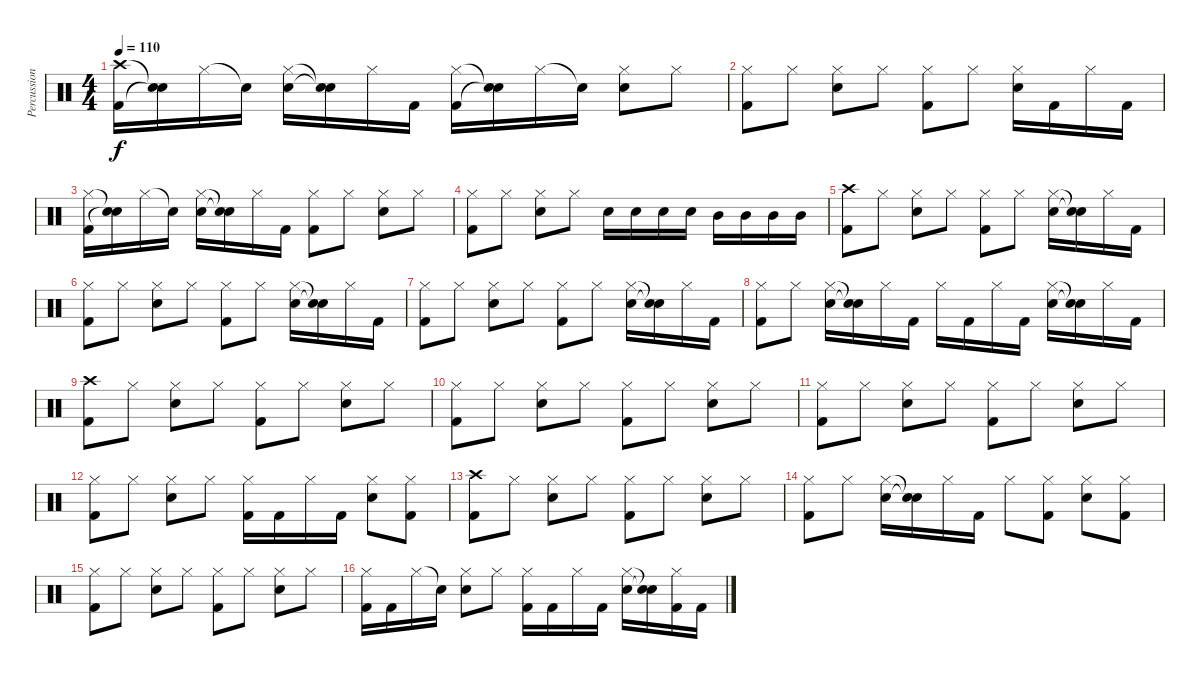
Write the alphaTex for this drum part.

\track ("Percussion" "Percussion") {instrument percussion}
\staff {score}
\articulation defaults
\ts (4 4)
\tempo 110
\clef neutral
\ks c
("Crash high (hit)" "Kick (hit) 2").16{dy f} ("Snare (hit)"{t} "Snare (hit)"{t}).16 "Hi-Hat (closed)".16 "Snare (hit)"{t}.16 ("Hi-Hat (closed)" "Snare (hit) 2").16 ("Snare (hit)"{t} "Snare (hit)"{t}).16 "Hi-Hat (closed)".16 "Kick (hit) 2".16 ("Hi-Hat (closed)" "Kick (hit) 2").16 ("Snare (hit)"{t} "Snare (hit)"{t}).16 "Hi-Hat (closed)".16 "Snare (hit)"{t}.16 ("Hi-Hat (closed)" "Snare (hit) 2").8 "Hi-Hat (closed)".8 |
("Hi-Hat (closed)" "Kick (hit) 2").8 "Hi-Hat (closed)".8 ("Hi-Hat (closed)" "Snare (hit) 2").8 "Hi-Hat (closed)".8 ("Hi-Hat (closed)" "Kick (hit) 2").8 "Hi-Hat (closed)".8 ("Hi-Hat (closed)" "Snare (hit) 2").16 "Kick (hit) 2".16 "Hi-Hat (closed)".16 "Kick (hit) 2".16 |
("Hi-Hat (closed)" "Kick (hit) 2").16 ("Snare (hit)"{t} "Snare (hit)"{t}).16 "Hi-Hat (closed)".16 "Snare (hit)"{t}.16 ("Hi-Hat (closed)" "Snare (hit) 2").16 ("Snare (hit)"{t} "Snare (hit)"{t}).16 "Hi-Hat (closed)".16 "Kick (hit) 2".16 ("Hi-Hat (closed)" "Kick (hit) 2").8 "Hi-Hat (closed)".8 ("Hi-Hat (closed)" "Snare (hit) 2").8 "Hi-Hat (closed)".8 |
("Hi-Hat (closed)" "Kick (hit) 2").8 "Hi-Hat (closed)".8 ("Hi-Hat (closed)" "Snare (hit) 2").8 "Hi-Hat (closed)".8 "Snare (hit) 2".16 "Snare (hit) 2".16 "Snare (hit) 2".16 "Snare (hit) 2".16 "Mid Tom (hit)".16 "Mid Tom (hit)".16 "Mid Tom (hit)".16 "Mid Tom (hit)".16 |
("Crash high (hit)" "Kick (hit) 2").8 "Hi-Hat (closed)".8 ("Hi-Hat (closed)" "Snare (hit) 2").8 "Hi-Hat (closed)".8 ("Hi-Hat (closed)" "Kick (hit) 2").8 "Hi-Hat (closed)".8 ("Hi-Hat (closed)" "Snare (hit) 2").16 ("Snare (hit)"{t} "Snare (hit)"{t}).16 "Hi-Hat (closed)".16 "Kick (hit) 2".16 |
("Hi-Hat (closed)" "Kick (hit) 2").8 "Hi-Hat (closed)".8 ("Hi-Hat (closed)" "Snare (hit) 2").8 "Hi-Hat (closed)".8 ("Hi-Hat (closed)" "Kick (hit) 2").8 "Hi-Hat (closed)".8 ("Hi-Hat (closed)" "Snare (hit) 2").16 ("Snare (hit)"{t} "Snare (hit)"{t}).16 "Hi-Hat (closed)".16 "Kick (hit) 2".16 |
("Hi-Hat (closed)" "Kick (hit) 2").8 "Hi-Hat (closed)".8 ("Hi-Hat (closed)" "Snare (hit) 2").8 "Hi-Hat (closed)".8 ("Hi-Hat (closed)" "Kick (hit) 2").8 "Hi-Hat (closed)".8 ("Hi-Hat (closed)" "Snare (hit) 2").16 ("Snare (hit)"{t} "Snare (hit)"{t}).16 "Hi-Hat (closed)".16 "Kick (hit) 2".16 |
("Hi-Hat (closed)" "Kick (hit) 2").8 "Hi-Hat (closed)".8 ("Hi-Hat (closed)" "Snare (hit) 2").16 ("Snare (hit)"{t} "Snare (hit)"{t}).16 "Hi-Hat (closed)".16 "Kick (hit) 2".16 "Hi-Hat (closed)".16 "Kick (hit) 2".16 "Hi-Hat (closed)".16 "Kick (hit) 2".16 ("Hi-Hat (closed)" "Snare (hit) 2").16 ("Snare (hit)"{t} "Snare (hit)"{t}).16 "Hi-Hat (closed)".16 "Kick (hit) 2".16 |
("Crash high (hit)" "Kick (hit) 2").8 "Hi-Hat (closed)".8 ("Hi-Hat (closed)" "Snare (hit) 2").8 "Hi-Hat (closed)".8 ("Hi-Hat (closed)" "Kick (hit) 2").8 "Hi-Hat (closed)".8 ("Hi-Hat (closed)" "Snare (hit) 2").8 "Hi-Hat (closed)".8 |
("Hi-Hat (closed)" "Kick (hit) 2").8 "Hi-Hat (closed)".8 ("Hi-Hat (closed)" "Snare (hit) 2").8 "Hi-Hat (closed)".8 ("Hi-Hat (closed)" "Kick (hit) 2").8 "Hi-Hat (closed)".8 ("Hi-Hat (closed)" "Snare (hit) 2").8 "Hi-Hat (closed)".8 |
("Hi-Hat (closed)" "Kick (hit) 2").8 "Hi-Hat (closed)".8 ("Hi-Hat (closed)" "Snare (hit) 2").8 "Hi-Hat (closed)".8 ("Hi-Hat (closed)" "Kick (hit) 2").8 "Hi-Hat (closed)".8 ("Hi-Hat (closed)" "Snare (hit) 2").8 "Hi-Hat (closed)".8 |
("Hi-Hat (closed)" "Kick (hit) 2").8 "Hi-Hat (closed)".8 ("Hi-Hat (closed)" "Snare (hit) 2").8 "Hi-Hat (closed)".8 ("Hi-Hat (closed)" "Kick (hit) 2").16 "Kick (hit) 2".16 "Hi-Hat (closed)".16 "Kick (hit) 2".16 ("Hi-Hat (closed)" "Snare (hit) 2").8 ("Hi-Hat (closed)" "Kick (hit) 2").8 |
("Crash high (hit)" "Kick (hit) 2").8 "Hi-Hat (closed)".8 ("Hi-Hat (closed)" "Snare (hit) 2").8 "Hi-Hat (closed)".8 ("Hi-Hat (closed)" "Kick (hit) 2").8 "Hi-Hat (closed)".8 ("Hi-Hat (closed)" "Snare (hit) 2").8 "Hi-Hat (closed)".8 |
("Hi-Hat (closed)" "Kick (hit) 2").8 "Hi-Hat (closed)".8 ("Hi-Hat (closed)" "Snare (hit) 2").16 ("Snare (hit)"{t} "Snare (hit)"{t}).16 "Hi-Hat (closed)".16 "Kick (hit) 2".16 "Hi-Hat (closed)".8 ("Hi-Hat (closed)" "Kick (hit) 2").8 ("Hi-Hat (closed)" "Snare (hit) 2").8 ("Hi-Hat (closed)" "Kick (hit) 2").8 |
("Hi-Hat (closed)" "Kick (hit) 2").8 "Hi-Hat (closed)".8 ("Hi-Hat (closed)" "Snare (hit) 2").8 "Hi-Hat (closed)".8 ("Hi-Hat (closed)" "Kick (hit) 2").8 "Hi-Hat (closed)".8 ("Hi-Hat (closed)" "Snare (hit) 2").8 "Hi-Hat (closed)".8 |
("Hi-Hat (closed)" "Kick (hit) 2").16 "Kick (hit) 2".16 "Hi-Hat (closed)".16 "Snare (hit)"{t}.16 ("Hi-Hat (closed)" "Snare (hit) 2").8 "Hi-Hat (closed)".8 ("Hi-Hat (closed)" "Kick (hit) 2").16 "Kick (hit) 2".16 "Hi-Hat (closed)".16 "Kick (hit) 2".16 ("Hi-Hat (closed)" "Snare (hit) 2").16 ("Snare (hit)"{t} "Snare (hit)"{t}).16 ("Hi-Hat (closed)" "Kick (hit) 2").16 "Kick (hit) 2".16
